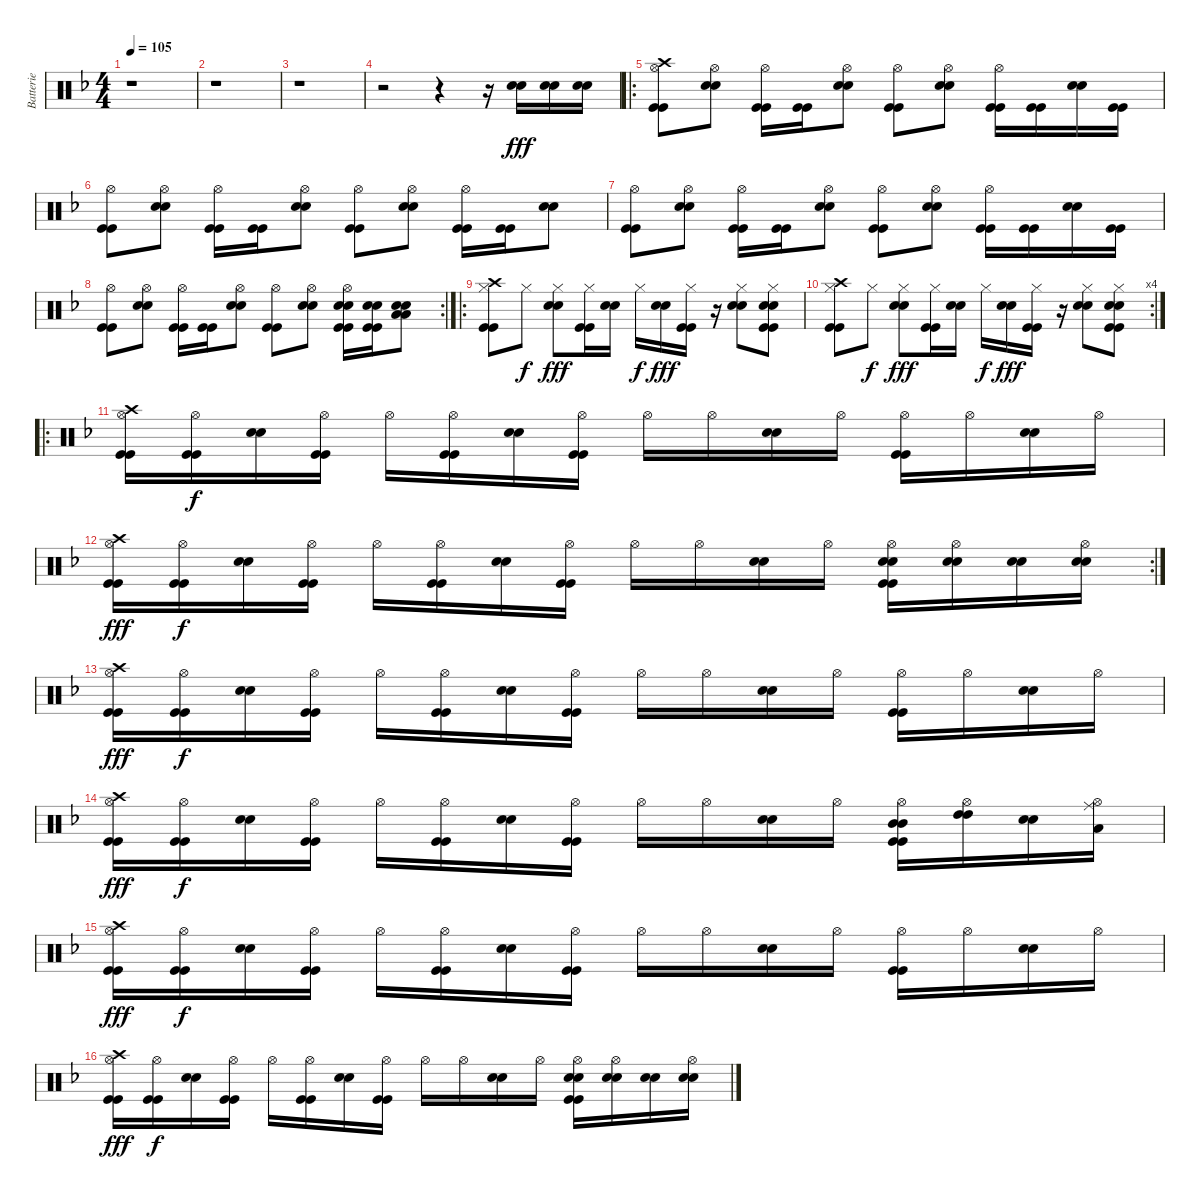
\track ("Batterie" "Batterie") {instrument percussion}
\staff {score}
\articulation defaults
\ts (4 4)
\tempo 105
\clef neutral
\ks f
r.1{dy fff} |
r.1 |
r.1 |
r.2 r.4 r.16 ("Snare (hit) 2" "Snare (hit) 2").16 ("Snare (hit) 2" "Snare (hit) 2").16 ("Snare (hit) 2" "Snare (hit) 2").16 |
\ro
("Kick (hit)" "Kick (hit)" "Crash high (hit)" "Hi-Hat (open)").8 ("Snare (hit) 2" "Snare (hit) 2" "Hi-Hat (open)").8 ("Kick (hit)" "Kick (hit)" "Hi-Hat (open)").16 ("Kick (hit)" "Kick (hit)").16 ("Snare (hit) 2" "Snare (hit) 2" "Hi-Hat (open)").8 ("Kick (hit)" "Kick (hit)" "Hi-Hat (open)").8 ("Snare (hit) 2" "Snare (hit) 2" "Hi-Hat (open)").8 ("Kick (hit)" "Kick (hit)" "Hi-Hat (open)").16 ("Kick (hit)" "Kick (hit)").16 ("Snare (hit) 2" "Snare (hit) 2").16 ("Kick (hit)" "Kick (hit)").16 |
("Kick (hit)" "Kick (hit)" "Hi-Hat (open)").8 ("Snare (hit) 2" "Snare (hit) 2" "Hi-Hat (open)").8 ("Kick (hit)" "Kick (hit)" "Hi-Hat (open)").16 ("Kick (hit)" "Kick (hit)").16 ("Snare (hit) 2" "Snare (hit) 2" "Hi-Hat (open)").8 ("Kick (hit)" "Kick (hit)" "Hi-Hat (open)").8 ("Snare (hit) 2" "Snare (hit) 2" "Hi-Hat (open)").8 ("Kick (hit)" "Kick (hit)" "Hi-Hat (open)").16 ("Kick (hit)" "Kick (hit)").16 ("Snare (hit) 2" "Snare (hit) 2").8 |
("Kick (hit)" "Kick (hit)" "Hi-Hat (open)").8 ("Snare (hit) 2" "Snare (hit) 2" "Hi-Hat (open)").8 ("Kick (hit)" "Kick (hit)" "Hi-Hat (open)").16 ("Kick (hit)" "Kick (hit)").16 ("Snare (hit) 2" "Snare (hit) 2" "Hi-Hat (open)").8 ("Kick (hit)" "Kick (hit)" "Hi-Hat (open)").8 ("Snare (hit) 2" "Snare (hit) 2" "Hi-Hat (open)").8 ("Kick (hit)" "Kick (hit)" "Hi-Hat (open)").16 ("Kick (hit)" "Kick (hit)").16 ("Snare (hit) 2" "Snare (hit) 2").16 ("Kick (hit)" "Kick (hit)").16 |
\rc 2
("Kick (hit)" "Kick (hit)" "Hi-Hat (open)").8 ("Snare (hit) 2" "Snare (hit) 2" "Hi-Hat (open)").8 ("Kick (hit)" "Kick (hit)" "Hi-Hat (open)").16 ("Kick (hit)" "Kick (hit)").16 ("Snare (hit) 2" "Snare (hit) 2" "Hi-Hat (open)").8 ("Kick (hit)" "Kick (hit)" "Hi-Hat (open)").8 ("Snare (hit) 2" "Snare (hit) 2" "Hi-Hat (open)").8 ("Kick (hit)" "Kick (hit)" "Snare (hit) 2" "Snare (hit) 2" "Hi-Hat (open)").16 ("Kick (hit)" "Kick (hit)" "Snare (hit) 2" "Snare (hit) 2").16 ("Low Floor Tom (hit)" "Low Floor Tom (hit)" "Snare (hit) 2" "Snare (hit) 2").8 |
\ro
("Kick (hit)" "Kick (hit)" "Crash high (hit)" "Hi-Hat (closed)").8 "Hi-Hat (closed)".8{dy f} ("Snare (hit) 2" "Snare (hit) 2" "Hi-Hat (closed)").8{dy fff} ("Kick (hit)" "Kick (hit)" "Hi-Hat (closed)").16 ("Snare (hit) 2" "Snare (hit) 2").16 "Hi-Hat (closed)".16{dy f} ("Snare (hit) 2" "Snare (hit) 2").16{dy fff} ("Kick (hit)" "Kick (hit)" "Hi-Hat (closed)").16 r.16 ("Snare (hit) 2" "Snare (hit) 2" "Hi-Hat (closed)").8 ("Kick (hit)" "Kick (hit)" "Snare (hit) 2" "Snare (hit) 2" "Hi-Hat (closed)").8 |
\rc 4
("Kick (hit)" "Kick (hit)" "Crash high (hit)" "Hi-Hat (closed)").8 "Hi-Hat (closed)".8{dy f} ("Snare (hit) 2" "Snare (hit) 2" "Hi-Hat (closed)").8{dy fff} ("Kick (hit)" "Kick (hit)" "Hi-Hat (closed)").16 ("Snare (hit) 2" "Snare (hit) 2").16 "Hi-Hat (closed)".16{dy f} ("Snare (hit) 2" "Snare (hit) 2").16{dy fff} ("Kick (hit)" "Kick (hit)" "Hi-Hat (closed)").16 r.16 ("Snare (hit) 2" "Snare (hit) 2" "Hi-Hat (closed)").8 ("Kick (hit)" "Kick (hit)" "Snare (hit) 2" "Snare (hit) 2" "Hi-Hat (closed)").8 |
\ro
("Kick (hit)" "Kick (hit)" "Crash high (hit)" "Hi-Hat (open)").16 ("Kick (hit)" "Kick (hit)" "Hi-Hat (open)").16{dy f} ("Snare (hit) 2" "Snare (hit) 2").16 ("Kick (hit)" "Kick (hit)" "Hi-Hat (open)").16 "Hi-Hat (open)".16 ("Kick (hit)" "Kick (hit)" "Hi-Hat (open)").16 ("Snare (hit) 2" "Snare (hit) 2").16 ("Kick (hit)" "Kick (hit)" "Hi-Hat (open)").16 "Hi-Hat (open)".16 "Hi-Hat (open)".16 ("Snare (hit) 2" "Snare (hit) 2").16 "Hi-Hat (open)".16 ("Kick (hit)" "Kick (hit)" "Hi-Hat (open)").16 "Hi-Hat (open)".16 ("Snare (hit) 2" "Snare (hit) 2").16 "Hi-Hat (open)".16 |
\rc 2
("Kick (hit)" "Kick (hit)" "Crash high (hit)" "Hi-Hat (open)").16{dy fff} ("Kick (hit)" "Kick (hit)" "Hi-Hat (open)").16{dy f} ("Snare (hit) 2" "Snare (hit) 2").16 ("Kick (hit)" "Kick (hit)" "Hi-Hat (open)").16 "Hi-Hat (open)".16 ("Kick (hit)" "Kick (hit)" "Hi-Hat (open)").16 ("Snare (hit) 2" "Snare (hit) 2").16 ("Kick (hit)" "Kick (hit)" "Hi-Hat (open)").16 "Hi-Hat (open)".16 "Hi-Hat (open)".16 ("Snare (hit) 2" "Snare (hit) 2").16 "Hi-Hat (open)".16 ("Kick (hit)" "Kick (hit)" "Snare (hit) 2" "Snare (hit) 2" "Hi-Hat (open)").16 ("Snare (hit) 2" "Snare (hit) 2" "Hi-Hat (open)").16 ("Snare (hit) 2" "Snare (hit) 2").16 ("Snare (hit) 2" "Snare (hit) 2" "Hi-Hat (open)").16 |
("Kick (hit)" "Kick (hit)" "Crash high (hit)" "Hi-Hat (open)").16{dy fff} ("Kick (hit)" "Kick (hit)" "Hi-Hat (open)").16{dy f} ("Snare (hit) 2" "Snare (hit) 2").16 ("Kick (hit)" "Kick (hit)" "Hi-Hat (open)").16 "Hi-Hat (open)".16 ("Kick (hit)" "Kick (hit)" "Hi-Hat (open)").16 ("Snare (hit) 2" "Snare (hit) 2").16 ("Kick (hit)" "Kick (hit)" "Hi-Hat (open)").16 "Hi-Hat (open)".16 "Hi-Hat (open)".16 ("Snare (hit) 2" "Snare (hit) 2").16 "Hi-Hat (open)".16 ("Kick (hit)" "Kick (hit)" "Hi-Hat (open)").16 "Hi-Hat (open)".16 ("Snare (hit) 2" "Snare (hit) 2").16 "Hi-Hat (open)".16 |
("Kick (hit)" "Kick (hit)" "Crash high (hit)" "Hi-Hat (open)").16{dy fff} ("Kick (hit)" "Kick (hit)" "Hi-Hat (open)").16{dy f} ("Snare (hit) 2" "Snare (hit) 2").16 ("Kick (hit)" "Kick (hit)" "Hi-Hat (open)").16 "Hi-Hat (open)".16 ("Kick (hit)" "Kick (hit)" "Hi-Hat (open)").16 ("Snare (hit) 2" "Snare (hit) 2").16 ("Kick (hit)" "Kick (hit)" "Hi-Hat (open)").16 "Hi-Hat (open)".16 "Hi-Hat (open)".16 ("Snare (hit) 2" "Snare (hit) 2").16 "Hi-Hat (open)".16 ("Kick (hit)" "Kick (hit)" "Mid Tom (hit)" "Mid Tom (hit)" "Hi-Hat (open)").16 ("High Tom (hit)" "High Tom (hit)" "Hi-Hat (open)").16 ("Snare (hit) 2" "Snare (hit) 2").16 ("Low Floor Tom (hit)" "Ride (middle)" "Hi-Hat (open)").16 |
("Kick (hit)" "Kick (hit)" "Crash high (hit)" "Hi-Hat (open)").16{dy fff} ("Kick (hit)" "Kick (hit)" "Hi-Hat (open)").16{dy f} ("Snare (hit) 2" "Snare (hit) 2").16 ("Kick (hit)" "Kick (hit)" "Hi-Hat (open)").16 "Hi-Hat (open)".16 ("Kick (hit)" "Kick (hit)" "Hi-Hat (open)").16 ("Snare (hit) 2" "Snare (hit) 2").16 ("Kick (hit)" "Kick (hit)" "Hi-Hat (open)").16 "Hi-Hat (open)".16 "Hi-Hat (open)".16 ("Snare (hit) 2" "Snare (hit) 2").16 "Hi-Hat (open)".16 ("Kick (hit)" "Kick (hit)" "Hi-Hat (open)").16 "Hi-Hat (open)".16 ("Snare (hit) 2" "Snare (hit) 2").16 "Hi-Hat (open)".16 |
("Kick (hit)" "Kick (hit)" "Crash high (hit)" "Hi-Hat (open)").16{dy fff} ("Kick (hit)" "Kick (hit)" "Hi-Hat (open)").16{dy f} ("Snare (hit) 2" "Snare (hit) 2").16 ("Kick (hit)" "Kick (hit)" "Hi-Hat (open)").16 "Hi-Hat (open)".16 ("Kick (hit)" "Kick (hit)" "Hi-Hat (open)").16 ("Snare (hit) 2" "Snare (hit) 2").16 ("Kick (hit)" "Kick (hit)" "Hi-Hat (open)").16 "Hi-Hat (open)".16 "Hi-Hat (open)".16 ("Snare (hit) 2" "Snare (hit) 2").16 "Hi-Hat (open)".16 ("Kick (hit)" "Kick (hit)" "Snare (hit) 2" "Snare (hit) 2" "Hi-Hat (open)").16 ("Snare (hit) 2" "Snare (hit) 2" "Hi-Hat (open)").16 ("Snare (hit) 2" "Snare (hit) 2").16 ("Snare (hit) 2" "Snare (hit) 2" "Hi-Hat (open)").16
